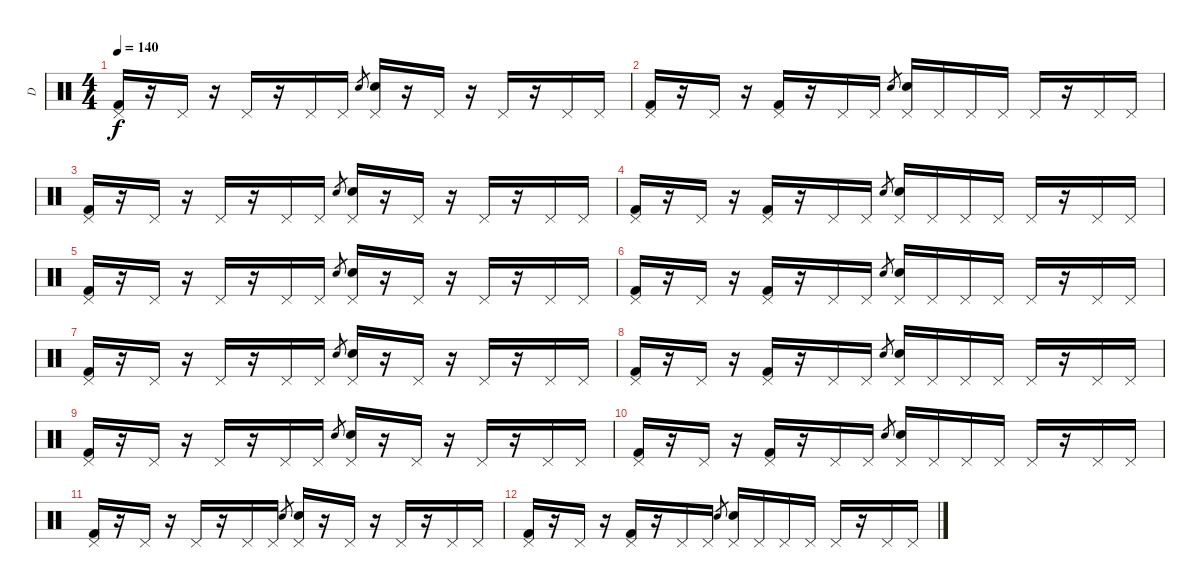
\track ("D" "D") {instrument percussion}
\staff {score}
\articulation defaults
\ts (4 4)
\tempo 140
\clef neutral
\ks c
("Kick (hit) 2" "Pedal Hi-Hat (hit)").16{dy f} r.16 "Pedal Hi-Hat (hit)".16 r.16 "Pedal Hi-Hat (hit)".16 r.16 "Pedal Hi-Hat (hit)".16 "Pedal Hi-Hat (hit)".16 "Electric Snare (hit)".8{gr} ("Electric Snare (hit)" "Pedal Hi-Hat (hit)").16 r.16 "Pedal Hi-Hat (hit)".16 r.16 "Pedal Hi-Hat (hit)".16 r.16 "Pedal Hi-Hat (hit)".16 "Pedal Hi-Hat (hit)".16 |
("Kick (hit) 2" "Pedal Hi-Hat (hit)").16 r.16 "Pedal Hi-Hat (hit)".16 r.16 ("Kick (hit) 2" "Pedal Hi-Hat (hit)").16 r.16 "Pedal Hi-Hat (hit)".16 "Pedal Hi-Hat (hit)".16 "Electric Snare (hit)".8{gr} ("Electric Snare (hit)" "Pedal Hi-Hat (hit)").16 "Pedal Hi-Hat (hit)".16 "Pedal Hi-Hat (hit)".16 "Pedal Hi-Hat (hit)".16 "Pedal Hi-Hat (hit)".16 r.16 "Pedal Hi-Hat (hit)".16 "Pedal Hi-Hat (hit)".16 |
("Kick (hit) 2" "Pedal Hi-Hat (hit)").16 r.16 "Pedal Hi-Hat (hit)".16 r.16 "Pedal Hi-Hat (hit)".16 r.16 "Pedal Hi-Hat (hit)".16 "Pedal Hi-Hat (hit)".16 "Electric Snare (hit)".8{gr} ("Electric Snare (hit)" "Pedal Hi-Hat (hit)").16 r.16 "Pedal Hi-Hat (hit)".16 r.16 "Pedal Hi-Hat (hit)".16 r.16 "Pedal Hi-Hat (hit)".16 "Pedal Hi-Hat (hit)".16 |
("Kick (hit) 2" "Pedal Hi-Hat (hit)").16 r.16 "Pedal Hi-Hat (hit)".16 r.16 ("Kick (hit) 2" "Pedal Hi-Hat (hit)").16 r.16 "Pedal Hi-Hat (hit)".16 "Pedal Hi-Hat (hit)".16 "Electric Snare (hit)".8{gr} ("Electric Snare (hit)" "Pedal Hi-Hat (hit)").16 "Pedal Hi-Hat (hit)".16 "Pedal Hi-Hat (hit)".16 "Pedal Hi-Hat (hit)".16 "Pedal Hi-Hat (hit)".16 r.16 "Pedal Hi-Hat (hit)".16 "Pedal Hi-Hat (hit)".16 |
("Kick (hit) 2" "Pedal Hi-Hat (hit)").16 r.16 "Pedal Hi-Hat (hit)".16 r.16 "Pedal Hi-Hat (hit)".16 r.16 "Pedal Hi-Hat (hit)".16 "Pedal Hi-Hat (hit)".16 "Electric Snare (hit)".8{gr} ("Electric Snare (hit)" "Pedal Hi-Hat (hit)").16 r.16 "Pedal Hi-Hat (hit)".16 r.16 "Pedal Hi-Hat (hit)".16 r.16 "Pedal Hi-Hat (hit)".16 "Pedal Hi-Hat (hit)".16 |
("Kick (hit) 2" "Pedal Hi-Hat (hit)").16 r.16 "Pedal Hi-Hat (hit)".16 r.16 ("Kick (hit) 2" "Pedal Hi-Hat (hit)").16 r.16 "Pedal Hi-Hat (hit)".16 "Pedal Hi-Hat (hit)".16 "Electric Snare (hit)".8{gr} ("Electric Snare (hit)" "Pedal Hi-Hat (hit)").16 "Pedal Hi-Hat (hit)".16 "Pedal Hi-Hat (hit)".16 "Pedal Hi-Hat (hit)".16 "Pedal Hi-Hat (hit)".16 r.16 "Pedal Hi-Hat (hit)".16 "Pedal Hi-Hat (hit)".16 |
("Kick (hit) 2" "Pedal Hi-Hat (hit)").16 r.16 "Pedal Hi-Hat (hit)".16 r.16 "Pedal Hi-Hat (hit)".16 r.16 "Pedal Hi-Hat (hit)".16 "Pedal Hi-Hat (hit)".16 "Electric Snare (hit)".8{gr} ("Electric Snare (hit)" "Pedal Hi-Hat (hit)").16 r.16 "Pedal Hi-Hat (hit)".16 r.16 "Pedal Hi-Hat (hit)".16 r.16 "Pedal Hi-Hat (hit)".16 "Pedal Hi-Hat (hit)".16 |
("Kick (hit) 2" "Pedal Hi-Hat (hit)").16 r.16 "Pedal Hi-Hat (hit)".16 r.16 ("Kick (hit) 2" "Pedal Hi-Hat (hit)").16 r.16 "Pedal Hi-Hat (hit)".16 "Pedal Hi-Hat (hit)".16 "Electric Snare (hit)".8{gr} ("Electric Snare (hit)" "Pedal Hi-Hat (hit)").16 "Pedal Hi-Hat (hit)".16 "Pedal Hi-Hat (hit)".16 "Pedal Hi-Hat (hit)".16 "Pedal Hi-Hat (hit)".16 r.16 "Pedal Hi-Hat (hit)".16 "Pedal Hi-Hat (hit)".16 |
("Kick (hit) 2" "Pedal Hi-Hat (hit)").16 r.16 "Pedal Hi-Hat (hit)".16 r.16 "Pedal Hi-Hat (hit)".16 r.16 "Pedal Hi-Hat (hit)".16 "Pedal Hi-Hat (hit)".16 "Electric Snare (hit)".8{gr} ("Electric Snare (hit)" "Pedal Hi-Hat (hit)").16 r.16 "Pedal Hi-Hat (hit)".16 r.16 "Pedal Hi-Hat (hit)".16 r.16 "Pedal Hi-Hat (hit)".16 "Pedal Hi-Hat (hit)".16 |
("Kick (hit) 2" "Pedal Hi-Hat (hit)").16 r.16 "Pedal Hi-Hat (hit)".16 r.16 ("Kick (hit) 2" "Pedal Hi-Hat (hit)").16 r.16 "Pedal Hi-Hat (hit)".16 "Pedal Hi-Hat (hit)".16 "Electric Snare (hit)".8{gr} ("Electric Snare (hit)" "Pedal Hi-Hat (hit)").16 "Pedal Hi-Hat (hit)".16 "Pedal Hi-Hat (hit)".16 "Pedal Hi-Hat (hit)".16 "Pedal Hi-Hat (hit)".16 r.16 "Pedal Hi-Hat (hit)".16 "Pedal Hi-Hat (hit)".16 |
("Kick (hit) 2" "Pedal Hi-Hat (hit)").16 r.16 "Pedal Hi-Hat (hit)".16 r.16 "Pedal Hi-Hat (hit)".16 r.16 "Pedal Hi-Hat (hit)".16 "Pedal Hi-Hat (hit)".16 "Electric Snare (hit)".8{gr} ("Electric Snare (hit)" "Pedal Hi-Hat (hit)").16 r.16 "Pedal Hi-Hat (hit)".16 r.16 "Pedal Hi-Hat (hit)".16 r.16 "Pedal Hi-Hat (hit)".16 "Pedal Hi-Hat (hit)".16 |
("Kick (hit) 2" "Pedal Hi-Hat (hit)").16 r.16 "Pedal Hi-Hat (hit)".16 r.16 ("Kick (hit) 2" "Pedal Hi-Hat (hit)").16 r.16 "Pedal Hi-Hat (hit)".16 "Pedal Hi-Hat (hit)".16 "Electric Snare (hit)".8{gr} ("Electric Snare (hit)" "Pedal Hi-Hat (hit)").16 "Pedal Hi-Hat (hit)".16 "Pedal Hi-Hat (hit)".16 "Pedal Hi-Hat (hit)".16 "Pedal Hi-Hat (hit)".16 r.16 "Pedal Hi-Hat (hit)".16 "Pedal Hi-Hat (hit)".16
